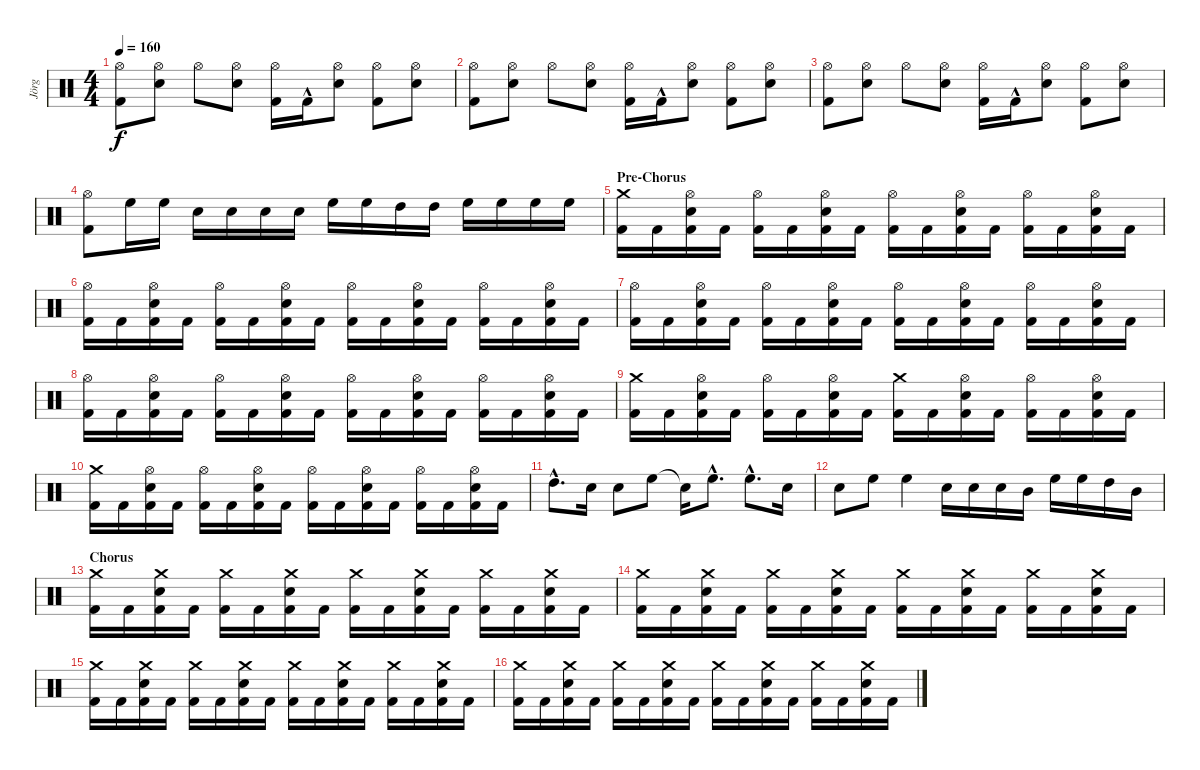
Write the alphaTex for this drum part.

\track ("Jörg" "Jörg") {instrument percussion}
\staff {score}
\articulation defaults
\ts (4 4)
\tempo 160
\clef neutral
\ks c
("Hi-Hat (open)" "Kick (hit) 2").8{dy f} ("Snare (hit) 2" "Hi-Hat (open)").8 "Hi-Hat (open)".8 ("Snare (hit) 2" "Hi-Hat (open)").8 ("Kick (hit) 2" "Hi-Hat (open)").16 "Kick (hit) 2"{hac}.16 ("Snare (hit) 2" "Hi-Hat (open)").8 ("Kick (hit) 2" "Hi-Hat (open)").8 ("Snare (hit) 2" "Hi-Hat (open)").8 |
("Hi-Hat (open)" "Kick (hit) 2").8 ("Snare (hit) 2" "Hi-Hat (open)").8 "Hi-Hat (open)".8 ("Snare (hit) 2" "Hi-Hat (open)").8 ("Kick (hit) 2" "Hi-Hat (open)").16 "Kick (hit) 2"{hac}.16 ("Snare (hit) 2" "Hi-Hat (open)").8 ("Kick (hit) 2" "Hi-Hat (open)").8 ("Snare (hit) 2" "Hi-Hat (open)").8 |
("Hi-Hat (open)" "Kick (hit) 2").8 ("Snare (hit) 2" "Hi-Hat (open)").8 "Hi-Hat (open)".8 ("Snare (hit) 2" "Hi-Hat (open)").8 ("Kick (hit) 2" "Hi-Hat (open)").16 "Kick (hit) 2"{hac}.16 ("Snare (hit) 2" "Hi-Hat (open)").8 ("Kick (hit) 2" "Hi-Hat (open)").8 ("Snare (hit) 2" "Hi-Hat (open)").8 |
("Kick (hit) 2" "Hi-Hat (open)").8 "High Floor Tom (hit)".16 "High Floor Tom (hit)".16 "Snare (hit) 2".16 "Snare (hit) 2".16 "Snare (hit) 2".16 "Snare (hit) 2".16 "High Floor Tom (hit)".16 "High Floor Tom (hit)".16 "High Tom (hit)".16 "High Tom (hit)".16 "High Floor Tom (hit)".16 "High Floor Tom (hit)".16 "High Floor Tom (hit)".16 "High Floor Tom (hit)".16 |
\section ("" "Pre-Chorus")
("Crash medium (hit)" "Kick (hit) 2").16 "Kick (hit) 2".16 ("Snare (hit) 2" "Hi-Hat (open)" "Kick (hit) 2").16 "Kick (hit) 2".16 ("Hi-Hat (open)" "Kick (hit) 2").16 "Kick (hit) 2".16 ("Snare (hit) 2" "Hi-Hat (open)" "Kick (hit) 2").16 "Kick (hit) 2".16 ("Hi-Hat (open)" "Kick (hit) 2").16 "Kick (hit) 2".16 ("Snare (hit) 2" "Hi-Hat (open)" "Kick (hit) 2").16 "Kick (hit) 2".16 ("Hi-Hat (open)" "Kick (hit) 2").16 "Kick (hit) 2".16 ("Snare (hit) 2" "Hi-Hat (open)" "Kick (hit) 2").16 "Kick (hit) 2".16 |
("Hi-Hat (open)" "Kick (hit) 2").16 "Kick (hit) 2".16 ("Hi-Hat (open)" "Snare (hit) 2" "Kick (hit) 2").16 "Kick (hit) 2".16 ("Hi-Hat (open)" "Kick (hit) 2").16 "Kick (hit) 2".16 ("Hi-Hat (open)" "Snare (hit) 2" "Kick (hit) 2").16 "Kick (hit) 2".16 ("Hi-Hat (open)" "Kick (hit) 2").16 "Kick (hit) 2".16 ("Hi-Hat (open)" "Snare (hit) 2" "Kick (hit) 2").16 "Kick (hit) 2".16 ("Hi-Hat (open)" "Kick (hit) 2").16 "Kick (hit) 2".16 ("Hi-Hat (open)" "Snare (hit) 2" "Kick (hit) 2").16 "Kick (hit) 2".16 |
("Hi-Hat (open)" "Kick (hit) 2").16 "Kick (hit) 2".16 ("Hi-Hat (open)" "Snare (hit) 2" "Kick (hit) 2").16 "Kick (hit) 2".16 ("Hi-Hat (open)" "Kick (hit) 2").16 "Kick (hit) 2".16 ("Hi-Hat (open)" "Snare (hit) 2" "Kick (hit) 2").16 "Kick (hit) 2".16 ("Hi-Hat (open)" "Kick (hit) 2").16 "Kick (hit) 2".16 ("Hi-Hat (open)" "Snare (hit) 2" "Kick (hit) 2").16 "Kick (hit) 2".16 ("Hi-Hat (open)" "Kick (hit) 2").16 "Kick (hit) 2".16 ("Hi-Hat (open)" "Snare (hit) 2" "Kick (hit) 2").16 "Kick (hit) 2".16 |
("Hi-Hat (open)" "Kick (hit) 2").16 "Kick (hit) 2".16 ("Hi-Hat (open)" "Snare (hit) 2" "Kick (hit) 2").16 "Kick (hit) 2".16 ("Hi-Hat (open)" "Kick (hit) 2").16 "Kick (hit) 2".16 ("Hi-Hat (open)" "Snare (hit) 2" "Kick (hit) 2").16 "Kick (hit) 2".16 ("Hi-Hat (open)" "Kick (hit) 2").16 "Kick (hit) 2".16 ("Hi-Hat (open)" "Snare (hit) 2" "Kick (hit) 2").16 "Kick (hit) 2".16 ("Hi-Hat (open)" "Kick (hit) 2").16 "Kick (hit) 2".16 ("Hi-Hat (open)" "Snare (hit) 2" "Kick (hit) 2").16 "Kick (hit) 2".16 |
("Crash medium (hit)" "Kick (hit) 2").16 "Kick (hit) 2".16 ("Hi-Hat (open)" "Snare (hit) 2" "Kick (hit) 2").16 "Kick (hit) 2".16 ("Hi-Hat (open)" "Kick (hit) 2").16 "Kick (hit) 2".16 ("Hi-Hat (open)" "Snare (hit) 2" "Kick (hit) 2").16 "Kick (hit) 2".16 ("Crash medium (hit)" "Kick (hit) 2").16 "Kick (hit) 2".16 ("Hi-Hat (open)" "Snare (hit) 2" "Kick (hit) 2").16 "Kick (hit) 2".16 ("Hi-Hat (open)" "Kick (hit) 2").16 "Kick (hit) 2".16 ("Hi-Hat (open)" "Snare (hit) 2" "Kick (hit) 2").16 "Kick (hit) 2".16 |
("Crash medium (hit)" "Kick (hit) 2").16 "Kick (hit) 2".16 ("Hi-Hat (open)" "Snare (hit) 2" "Kick (hit) 2").16 "Kick (hit) 2".16 ("Hi-Hat (open)" "Kick (hit) 2").16 "Kick (hit) 2".16 ("Hi-Hat (open)" "Snare (hit) 2" "Kick (hit) 2").16 "Kick (hit) 2".16 ("Hi-Hat (open)" "Kick (hit) 2").16 "Kick (hit) 2".16 ("Hi-Hat (open)" "Snare (hit) 2" "Kick (hit) 2").16 "Kick (hit) 2".16 ("Hi-Hat (open)" "Kick (hit) 2").16 "Kick (hit) 2".16 ("Hi-Hat (open)" "Snare (hit) 2" "Kick (hit) 2").16 "Kick (hit) 2".16 |
"High Tom (hit)"{hac}.8{d} "Snare (hit) 2".16 "Snare (hit) 2".8 "High Floor Tom (hit)".8 "Snare (hit)"{t}.16 "High Floor Tom (hit)"{hac}.8{d} "High Floor Tom (hit)"{hac}.8{d} "Snare (hit) 2".16 |
"Snare (hit) 2".8 "High Floor Tom (hit)".8 "High Floor Tom (hit)".4 "Snare (hit) 2".16 "Snare (hit) 2".16 "Snare (hit) 2".16 "Mid Tom (hit)".16 "High Floor Tom (hit)".16 "High Floor Tom (hit)".16 "High Tom (hit)".16 "Mid Tom (hit)".16 |
\section ("" "Chorus")
("Crash medium (hit)" "Kick (hit) 2").16 "Kick (hit) 2".16 ("Crash medium (hit)" "Snare (hit) 2" "Kick (hit) 2").16 "Kick (hit) 2".16 ("Crash medium (hit)" "Kick (hit) 2").16 "Kick (hit) 2".16 ("Crash medium (hit)" "Snare (hit) 2" "Kick (hit) 2").16 "Kick (hit) 2".16 ("Crash medium (hit)" "Kick (hit) 2").16 "Kick (hit) 2".16 ("Crash medium (hit)" "Snare (hit) 2" "Kick (hit) 2").16 "Kick (hit) 2".16 ("Crash medium (hit)" "Kick (hit) 2").16 "Kick (hit) 2".16 ("Crash medium (hit)" "Snare (hit) 2" "Kick (hit) 2").16 "Kick (hit) 2".16 |
("Crash medium (hit)" "Kick (hit) 2").16 "Kick (hit) 2".16 ("Crash medium (hit)" "Snare (hit) 2" "Kick (hit) 2").16 "Kick (hit) 2".16 ("Crash medium (hit)" "Kick (hit) 2").16 "Kick (hit) 2".16 ("Crash medium (hit)" "Snare (hit) 2" "Kick (hit) 2").16 "Kick (hit) 2".16 ("Crash medium (hit)" "Kick (hit) 2").16 "Kick (hit) 2".16 ("Crash medium (hit)" "Snare (hit) 2" "Kick (hit) 2").16 "Kick (hit) 2".16 ("Crash medium (hit)" "Kick (hit) 2").16 "Kick (hit) 2".16 ("Crash medium (hit)" "Snare (hit) 2" "Kick (hit) 2").16 "Kick (hit) 2".16 |
("Crash medium (hit)" "Kick (hit) 2").16 "Kick (hit) 2".16 ("Crash medium (hit)" "Snare (hit) 2" "Kick (hit) 2").16 "Kick (hit) 2".16 ("Crash medium (hit)" "Kick (hit) 2").16 "Kick (hit) 2".16 ("Crash medium (hit)" "Snare (hit) 2" "Kick (hit) 2").16 "Kick (hit) 2".16 ("Crash medium (hit)" "Kick (hit) 2").16 "Kick (hit) 2".16 ("Crash medium (hit)" "Snare (hit) 2" "Kick (hit) 2").16 "Kick (hit) 2".16 ("Crash medium (hit)" "Kick (hit) 2").16 "Kick (hit) 2".16 ("Crash medium (hit)" "Snare (hit) 2" "Kick (hit) 2").16 "Kick (hit) 2".16 |
("Crash medium (hit)" "Kick (hit) 2").16 "Kick (hit) 2".16 ("Crash medium (hit)" "Snare (hit) 2" "Kick (hit) 2").16 "Kick (hit) 2".16 ("Crash medium (hit)" "Kick (hit) 2").16 "Kick (hit) 2".16 ("Crash medium (hit)" "Snare (hit) 2" "Kick (hit) 2").16 "Kick (hit) 2".16 ("Crash medium (hit)" "Kick (hit) 2").16 "Kick (hit) 2".16 ("Crash medium (hit)" "Snare (hit) 2" "Kick (hit) 2").16 "Kick (hit) 2".16 ("Crash medium (hit)" "Kick (hit) 2").16 "Kick (hit) 2".16 ("Crash medium (hit)" "Snare (hit) 2" "Kick (hit) 2").16 "Kick (hit) 2".16
